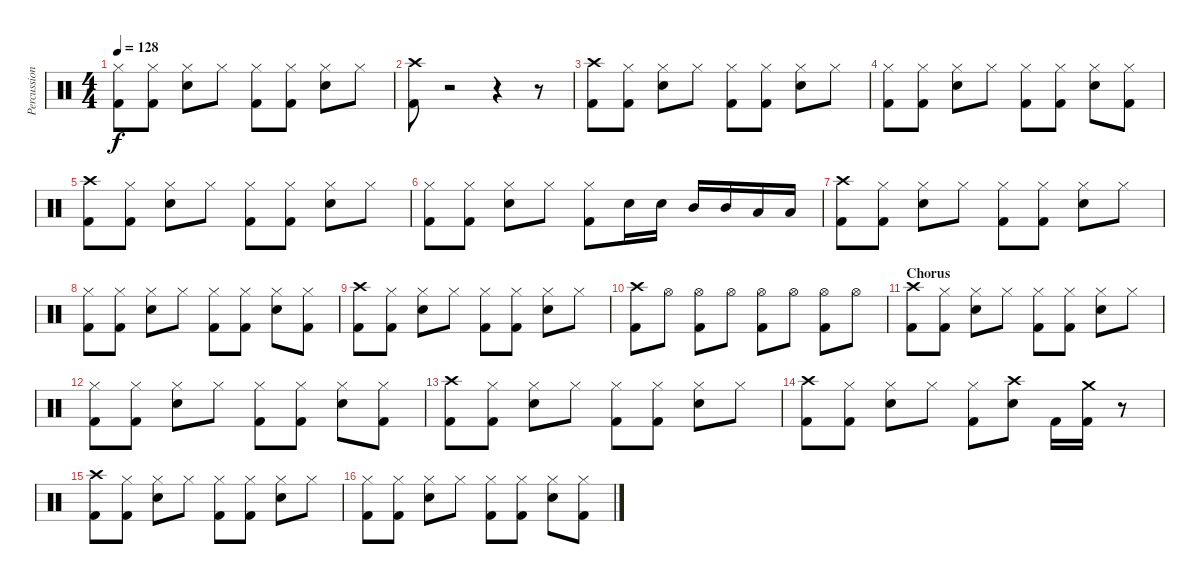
\track ("Percussion" "Percussion") {instrument percussion}
\staff {score}
\articulation defaults
\ts (4 4)
\tempo 128
\clef neutral
\ks c
("Hi-Hat (closed)" "Kick (hit) 2").8{dy f} ("Hi-Hat (closed)" "Kick (hit) 2").8 ("Hi-Hat (closed)" "Snare (hit) 2").8 "Hi-Hat (closed)".8 ("Hi-Hat (closed)" "Kick (hit) 2").8 ("Hi-Hat (closed)" "Kick (hit) 2").8 ("Hi-Hat (closed)" "Snare (hit) 2").8 "Hi-Hat (closed)".8 |
("Crash high (hit)" "Kick (hit) 2").8 r.2 r.4 r.8 |
("Crash high (hit)" "Kick (hit) 2").8 ("Hi-Hat (closed)" "Kick (hit) 2").8 ("Hi-Hat (closed)" "Snare (hit) 2").8 "Hi-Hat (closed)".8 ("Hi-Hat (closed)" "Kick (hit) 2").8 ("Hi-Hat (closed)" "Kick (hit) 2").8 ("Hi-Hat (closed)" "Snare (hit) 2").8 "Hi-Hat (closed)".8 |
("Hi-Hat (closed)" "Kick (hit) 2").8 ("Hi-Hat (closed)" "Kick (hit) 2").8 ("Hi-Hat (closed)" "Snare (hit) 2").8 "Hi-Hat (closed)".8 ("Hi-Hat (closed)" "Kick (hit) 2").8 ("Hi-Hat (closed)" "Kick (hit) 2").8 ("Hi-Hat (closed)" "Snare (hit) 2").8 ("Hi-Hat (closed)" "Kick (hit) 2").8 |
("Crash high (hit)" "Kick (hit) 2").8 ("Hi-Hat (closed)" "Kick (hit) 2").8 ("Hi-Hat (closed)" "Snare (hit) 2").8 "Hi-Hat (closed)".8 ("Hi-Hat (closed)" "Kick (hit) 2").8 ("Hi-Hat (closed)" "Kick (hit) 2").8 ("Hi-Hat (closed)" "Snare (hit) 2").8 "Hi-Hat (closed)".8 |
("Hi-Hat (closed)" "Kick (hit) 2").8 ("Hi-Hat (closed)" "Kick (hit) 2").8 ("Hi-Hat (closed)" "Snare (hit) 2").8 "Hi-Hat (closed)".8 ("Hi-Hat (closed)" "Kick (hit) 2").8 "Snare (hit) 2".16 "Snare (hit) 2".16 "Mid Tom (hit)".16 "Mid Tom (hit)".16 "Low Tom (hit)".16 "Low Tom (hit)".16 |
("Crash high (hit)" "Kick (hit) 2").8 ("Hi-Hat (closed)" "Kick (hit) 2").8 ("Hi-Hat (closed)" "Snare (hit) 2").8 "Hi-Hat (closed)".8 ("Hi-Hat (closed)" "Kick (hit) 2").8 ("Hi-Hat (closed)" "Kick (hit) 2").8 ("Hi-Hat (closed)" "Snare (hit) 2").8 "Hi-Hat (closed)".8 |
("Hi-Hat (closed)" "Kick (hit) 2").8 ("Hi-Hat (closed)" "Kick (hit) 2").8 ("Hi-Hat (closed)" "Snare (hit) 2").8 "Hi-Hat (closed)".8 ("Hi-Hat (closed)" "Kick (hit) 2").8 ("Hi-Hat (closed)" "Kick (hit) 2").8 ("Hi-Hat (closed)" "Snare (hit) 2").8 ("Hi-Hat (closed)" "Kick (hit) 2").8 |
("Crash high (hit)" "Kick (hit) 2").8 ("Hi-Hat (closed)" "Kick (hit) 2").8 ("Hi-Hat (closed)" "Snare (hit) 2").8 "Hi-Hat (closed)".8 ("Hi-Hat (closed)" "Kick (hit) 2").8 ("Hi-Hat (closed)" "Kick (hit) 2").8 ("Hi-Hat (closed)" "Snare (hit) 2").8 "Hi-Hat (closed)".8 |
("Crash high (hit)" "Kick (hit) 2").8 "Hi-Hat (open)".8 ("Hi-Hat (open)" "Kick (hit) 2").8 "Hi-Hat (open)".8 ("Hi-Hat (open)" "Kick (hit) 2").8 "Hi-Hat (open)".8 ("Hi-Hat (open)" "Kick (hit) 2").8 "Hi-Hat (open)".8 |
\section ("" "Chorus")
("Crash high (hit)" "Kick (hit) 2").8 ("Hi-Hat (closed)" "Kick (hit) 2").8 ("Hi-Hat (closed)" "Snare (hit) 2").8 "Hi-Hat (closed)".8 ("Hi-Hat (closed)" "Kick (hit) 2").8 ("Hi-Hat (closed)" "Kick (hit) 2").8 ("Hi-Hat (closed)" "Snare (hit) 2").8 "Hi-Hat (closed)".8 |
("Hi-Hat (closed)" "Kick (hit) 2").8 ("Hi-Hat (closed)" "Kick (hit) 2").8 ("Hi-Hat (closed)" "Snare (hit) 2").8 "Hi-Hat (closed)".8 ("Hi-Hat (closed)" "Kick (hit) 2").8 ("Hi-Hat (closed)" "Kick (hit) 2").8 ("Hi-Hat (closed)" "Snare (hit) 2").8 ("Hi-Hat (closed)" "Kick (hit) 2").8 |
("Crash high (hit)" "Kick (hit) 2").8 ("Hi-Hat (closed)" "Kick (hit) 2").8 ("Hi-Hat (closed)" "Snare (hit) 2").8 "Hi-Hat (closed)".8 ("Hi-Hat (closed)" "Kick (hit) 2").8 ("Hi-Hat (closed)" "Kick (hit) 2").8 ("Hi-Hat (closed)" "Snare (hit) 2").8 "Hi-Hat (closed)".8 |
("Crash high (hit)" "Kick (hit) 2").8 ("Hi-Hat (closed)" "Kick (hit) 2").8 ("Hi-Hat (closed)" "Snare (hit) 2").8 "Hi-Hat (closed)".8 ("Hi-Hat (closed)" "Kick (hit) 2").8 ("Crash high (hit)" "Snare (hit) 2").8 "Kick (hit) 2".16 ("Crash medium (hit)" "Kick (hit) 2").16 r.8 |
("Crash high (hit)" "Kick (hit) 2").8 ("Hi-Hat (closed)" "Kick (hit) 2").8 ("Hi-Hat (closed)" "Snare (hit) 2").8 "Hi-Hat (closed)".8 ("Hi-Hat (closed)" "Kick (hit) 2").8 ("Hi-Hat (closed)" "Kick (hit) 2").8 ("Hi-Hat (closed)" "Snare (hit) 2").8 "Hi-Hat (closed)".8 |
("Hi-Hat (closed)" "Kick (hit) 2").8 ("Hi-Hat (closed)" "Kick (hit) 2").8 ("Hi-Hat (closed)" "Snare (hit) 2").8 "Hi-Hat (closed)".8 ("Hi-Hat (closed)" "Kick (hit) 2").8 ("Hi-Hat (closed)" "Kick (hit) 2").8 ("Hi-Hat (closed)" "Snare (hit) 2").8 ("Hi-Hat (closed)" "Kick (hit) 2").8
